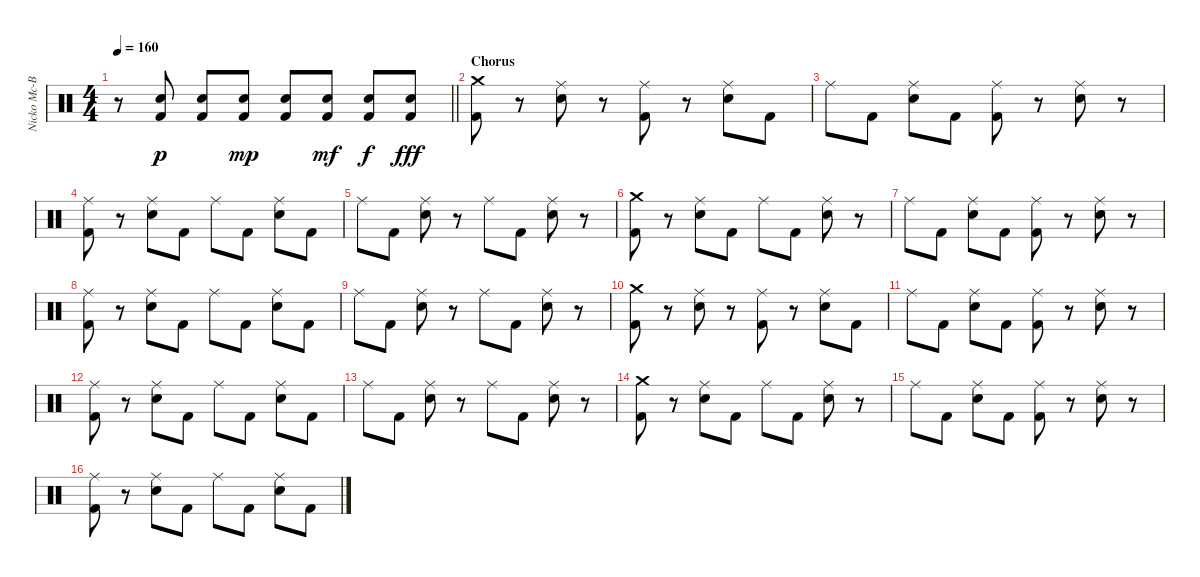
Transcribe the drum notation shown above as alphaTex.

\track ("Nicko Mc-Brain" "Nicko Mc-B") {instrument percussion}
\staff {score}
\articulation defaults
\ts (4 4)
\tempo 160
\clef neutral
\barLineRight lightlight
\ks c
r.8{dy f} ("Snare (hit) 2" "Kick (hit) 2").8{dy p} ("Snare (hit) 2" "Kick (hit) 2").8 ("Snare (hit) 2" "Kick (hit) 2").8{dy mp} ("Snare (hit) 2" "Kick (hit) 2").8 ("Snare (hit) 2" "Kick (hit) 2").8{dy mf} ("Snare (hit) 2" "Kick (hit) 2").8{dy f} ("Snare (hit) 2" "Kick (hit) 2").8{dy fff} |
\section ("" "Chorus")
("Crash medium (hit)" "Kick (hit) 2").8 r.8 ("Ride (middle)" "Snare (hit) 2").8 r.8 ("Ride (middle)" "Kick (hit) 2").8 r.8 ("Ride (middle)" "Snare (hit) 2").8 "Kick (hit) 2".8 |
"Ride (middle)".8 "Kick (hit) 2".8 ("Ride (middle)" "Snare (hit) 2").8 "Kick (hit) 2".8 ("Ride (middle)" "Kick (hit) 2").8 r.8 ("Ride (middle)" "Snare (hit) 2").8 r.8 |
("Ride (middle)" "Kick (hit) 2").8 r.8 ("Ride (middle)" "Snare (hit) 2").8 "Kick (hit) 2".8 "Ride (middle)".8 "Kick (hit) 2".8 ("Ride (middle)" "Snare (hit) 2").8 "Kick (hit) 2".8 |
"Ride (middle)".8 "Kick (hit) 2".8 ("Ride (middle)" "Snare (hit) 2").8 r.8 "Ride (middle)".8 "Kick (hit) 2".8 ("Ride (middle)" "Snare (hit) 2").8 r.8 |
("Crash medium (hit)" "Kick (hit) 2").8 r.8 ("Ride (middle)" "Snare (hit) 2").8 "Kick (hit) 2".8 "Ride (middle)".8 "Kick (hit) 2".8 ("Ride (middle)" "Snare (hit) 2").8 r.8 |
"Ride (middle)".8 "Kick (hit) 2".8 ("Ride (middle)" "Snare (hit) 2").8 "Kick (hit) 2".8 ("Ride (middle)" "Kick (hit) 2").8 r.8 ("Ride (middle)" "Snare (hit) 2").8 r.8 |
("Ride (middle)" "Kick (hit) 2").8 r.8 ("Ride (middle)" "Snare (hit) 2").8 "Kick (hit) 2".8 "Ride (middle)".8 "Kick (hit) 2".8 ("Ride (middle)" "Snare (hit) 2").8 "Kick (hit) 2".8 |
"Ride (middle)".8 "Kick (hit) 2".8 ("Ride (middle)" "Snare (hit) 2").8 r.8 "Ride (middle)".8 "Kick (hit) 2".8 ("Ride (middle)" "Snare (hit) 2").8 r.8 |
("Crash medium (hit)" "Kick (hit) 2").8 r.8 ("Ride (middle)" "Snare (hit) 2").8 r.8 ("Ride (middle)" "Kick (hit) 2").8 r.8 ("Ride (middle)" "Snare (hit) 2").8 "Kick (hit) 2".8 |
"Ride (middle)".8 "Kick (hit) 2".8 ("Ride (middle)" "Snare (hit) 2").8 "Kick (hit) 2".8 ("Ride (middle)" "Kick (hit) 2").8 r.8 ("Ride (middle)" "Snare (hit) 2").8 r.8 |
("Ride (middle)" "Kick (hit) 2").8 r.8 ("Ride (middle)" "Snare (hit) 2").8 "Kick (hit) 2".8 "Ride (middle)".8 "Kick (hit) 2".8 ("Ride (middle)" "Snare (hit) 2").8 "Kick (hit) 2".8 |
"Ride (middle)".8 "Kick (hit) 2".8 ("Ride (middle)" "Snare (hit) 2").8 r.8 "Ride (middle)".8 "Kick (hit) 2".8 ("Ride (middle)" "Snare (hit) 2").8 r.8 |
("Crash medium (hit)" "Kick (hit) 2").8 r.8 ("Ride (middle)" "Snare (hit) 2").8 "Kick (hit) 2".8 "Ride (middle)".8 "Kick (hit) 2".8 ("Ride (middle)" "Snare (hit) 2").8 r.8 |
"Ride (middle)".8 "Kick (hit) 2".8 ("Ride (middle)" "Snare (hit) 2").8 "Kick (hit) 2".8 ("Ride (middle)" "Kick (hit) 2").8 r.8 ("Ride (middle)" "Snare (hit) 2").8 r.8 |
("Ride (middle)" "Kick (hit) 2").8 r.8 ("Ride (middle)" "Snare (hit) 2").8 "Kick (hit) 2".8 "Ride (middle)".8 "Kick (hit) 2".8 ("Ride (middle)" "Snare (hit) 2").8 "Kick (hit) 2".8
